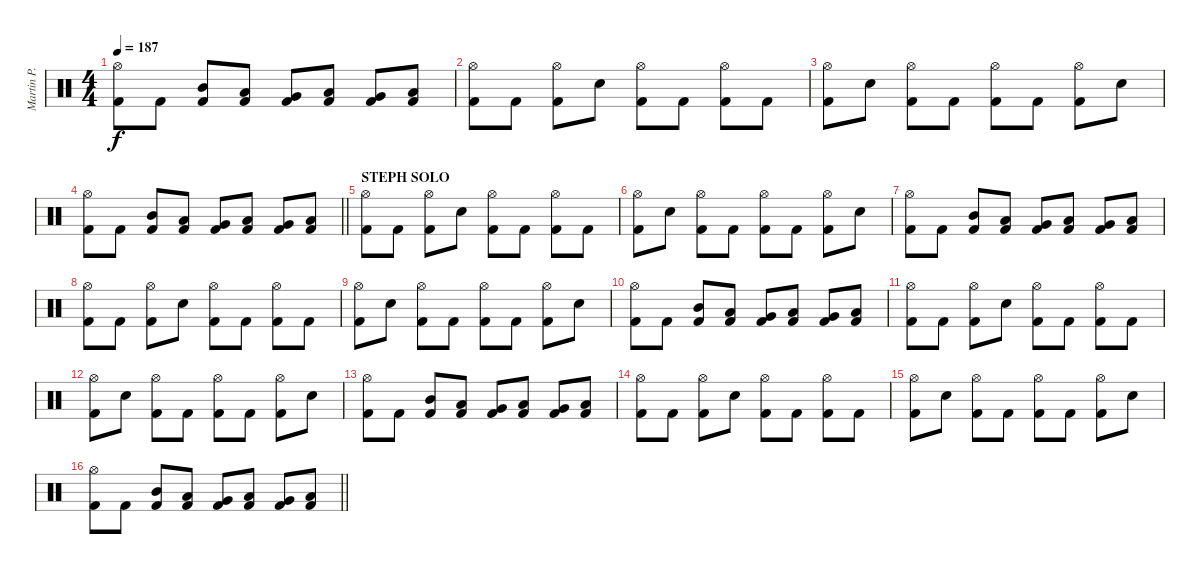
\track ("Martin P." "Martin P.") {instrument percussion}
\staff {score}
\articulation defaults
\ts (4 4)
\tempo 187
\clef neutral
\ks c
("Hi-Hat (open)" "Kick (hit) 2").8{dy f} "Kick (hit) 2".8 ("Mid Tom (hit)" "Kick (hit) 2").8 ("Low Tom (hit)" "Kick (hit) 2").8 ("Very Low Tom (hit)" "Kick (hit) 2").8 ("Low Tom (hit)" "Kick (hit) 2").8 ("Very Low Tom (hit)" "Kick (hit) 2").8 ("Low Floor Tom (hit)" "Kick (hit) 2").8 |
("Hi-Hat (open)" "Kick (hit) 2").8 "Kick (hit) 2".8 ("Hi-Hat (open)" "Kick (hit) 2").8 "Electric Snare (hit)".8 ("Hi-Hat (open)" "Kick (hit) 2").8 "Kick (hit) 2".8 ("Hi-Hat (open)" "Kick (hit) 2").8 "Kick (hit) 2".8 |
("Hi-Hat (open)" "Kick (hit) 2").8 "Electric Snare (hit)".8 ("Hi-Hat (open)" "Kick (hit) 2").8 "Kick (hit) 2".8 ("Hi-Hat (open)" "Kick (hit) 2").8 "Kick (hit) 2".8 ("Hi-Hat (open)" "Kick (hit) 2").8 "Electric Snare (hit)".8 |
\barLineRight lightlight
("Hi-Hat (open)" "Kick (hit) 2").8 "Kick (hit) 2".8 ("Mid Tom (hit)" "Kick (hit) 2").8 ("Low Tom (hit)" "Kick (hit) 2").8 ("Very Low Tom (hit)" "Kick (hit) 2").8 ("Low Tom (hit)" "Kick (hit) 2").8 ("Very Low Tom (hit)" "Kick (hit) 2").8 ("Low Floor Tom (hit)" "Kick (hit) 2").8 |
\section ("" "STEPH SOLO")
("Hi-Hat (open)" "Kick (hit) 2").8 "Kick (hit) 2".8 ("Hi-Hat (open)" "Kick (hit) 2").8 "Electric Snare (hit)".8 ("Hi-Hat (open)" "Kick (hit) 2").8 "Kick (hit) 2".8 ("Hi-Hat (open)" "Kick (hit) 2").8 "Kick (hit) 2".8 |
("Hi-Hat (open)" "Kick (hit) 2").8 "Electric Snare (hit)".8 ("Hi-Hat (open)" "Kick (hit) 2").8 "Kick (hit) 2".8 ("Hi-Hat (open)" "Kick (hit) 2").8 "Kick (hit) 2".8 ("Hi-Hat (open)" "Kick (hit) 2").8 "Electric Snare (hit)".8 |
("Hi-Hat (open)" "Kick (hit) 2").8 "Kick (hit) 2".8 ("Mid Tom (hit)" "Kick (hit) 2").8 ("Low Tom (hit)" "Kick (hit) 2").8 ("Very Low Tom (hit)" "Kick (hit) 2").8 ("Low Tom (hit)" "Kick (hit) 2").8 ("Very Low Tom (hit)" "Kick (hit) 2").8 ("Low Floor Tom (hit)" "Kick (hit) 2").8 |
("Hi-Hat (open)" "Kick (hit) 2").8 "Kick (hit) 2".8 ("Hi-Hat (open)" "Kick (hit) 2").8 "Electric Snare (hit)".8 ("Hi-Hat (open)" "Kick (hit) 2").8 "Kick (hit) 2".8 ("Hi-Hat (open)" "Kick (hit) 2").8 "Kick (hit) 2".8 |
("Hi-Hat (open)" "Kick (hit) 2").8 "Electric Snare (hit)".8 ("Hi-Hat (open)" "Kick (hit) 2").8 "Kick (hit) 2".8 ("Hi-Hat (open)" "Kick (hit) 2").8 "Kick (hit) 2".8 ("Hi-Hat (open)" "Kick (hit) 2").8 "Electric Snare (hit)".8 |
("Hi-Hat (open)" "Kick (hit) 2").8 "Kick (hit) 2".8 ("Mid Tom (hit)" "Kick (hit) 2").8 ("Low Tom (hit)" "Kick (hit) 2").8 ("Very Low Tom (hit)" "Kick (hit) 2").8 ("Low Tom (hit)" "Kick (hit) 2").8 ("Very Low Tom (hit)" "Kick (hit) 2").8 ("Low Floor Tom (hit)" "Kick (hit) 2").8 |
("Hi-Hat (open)" "Kick (hit) 2").8 "Kick (hit) 2".8 ("Hi-Hat (open)" "Kick (hit) 2").8 "Electric Snare (hit)".8 ("Hi-Hat (open)" "Kick (hit) 2").8 "Kick (hit) 2".8 ("Hi-Hat (open)" "Kick (hit) 2").8 "Kick (hit) 2".8 |
("Hi-Hat (open)" "Kick (hit) 2").8 "Electric Snare (hit)".8 ("Hi-Hat (open)" "Kick (hit) 2").8 "Kick (hit) 2".8 ("Hi-Hat (open)" "Kick (hit) 2").8 "Kick (hit) 2".8 ("Hi-Hat (open)" "Kick (hit) 2").8 "Electric Snare (hit)".8 |
("Hi-Hat (open)" "Kick (hit) 2").8 "Kick (hit) 2".8 ("Mid Tom (hit)" "Kick (hit) 2").8 ("Low Tom (hit)" "Kick (hit) 2").8 ("Very Low Tom (hit)" "Kick (hit) 2").8 ("Low Tom (hit)" "Kick (hit) 2").8 ("Very Low Tom (hit)" "Kick (hit) 2").8 ("Low Floor Tom (hit)" "Kick (hit) 2").8 |
("Hi-Hat (open)" "Kick (hit) 2").8 "Kick (hit) 2".8 ("Hi-Hat (open)" "Kick (hit) 2").8 "Electric Snare (hit)".8 ("Hi-Hat (open)" "Kick (hit) 2").8 "Kick (hit) 2".8 ("Hi-Hat (open)" "Kick (hit) 2").8 "Kick (hit) 2".8 |
("Hi-Hat (open)" "Kick (hit) 2").8 "Electric Snare (hit)".8 ("Hi-Hat (open)" "Kick (hit) 2").8 "Kick (hit) 2".8 ("Hi-Hat (open)" "Kick (hit) 2").8 "Kick (hit) 2".8 ("Hi-Hat (open)" "Kick (hit) 2").8 "Electric Snare (hit)".8 |
\barLineRight lightlight
("Hi-Hat (open)" "Kick (hit) 2").8 "Kick (hit) 2".8 ("Mid Tom (hit)" "Kick (hit) 2").8 ("Low Tom (hit)" "Kick (hit) 2").8 ("Very Low Tom (hit)" "Kick (hit) 2").8 ("Low Tom (hit)" "Kick (hit) 2").8 ("Very Low Tom (hit)" "Kick (hit) 2").8 ("Low Floor Tom (hit)" "Kick (hit) 2").8
